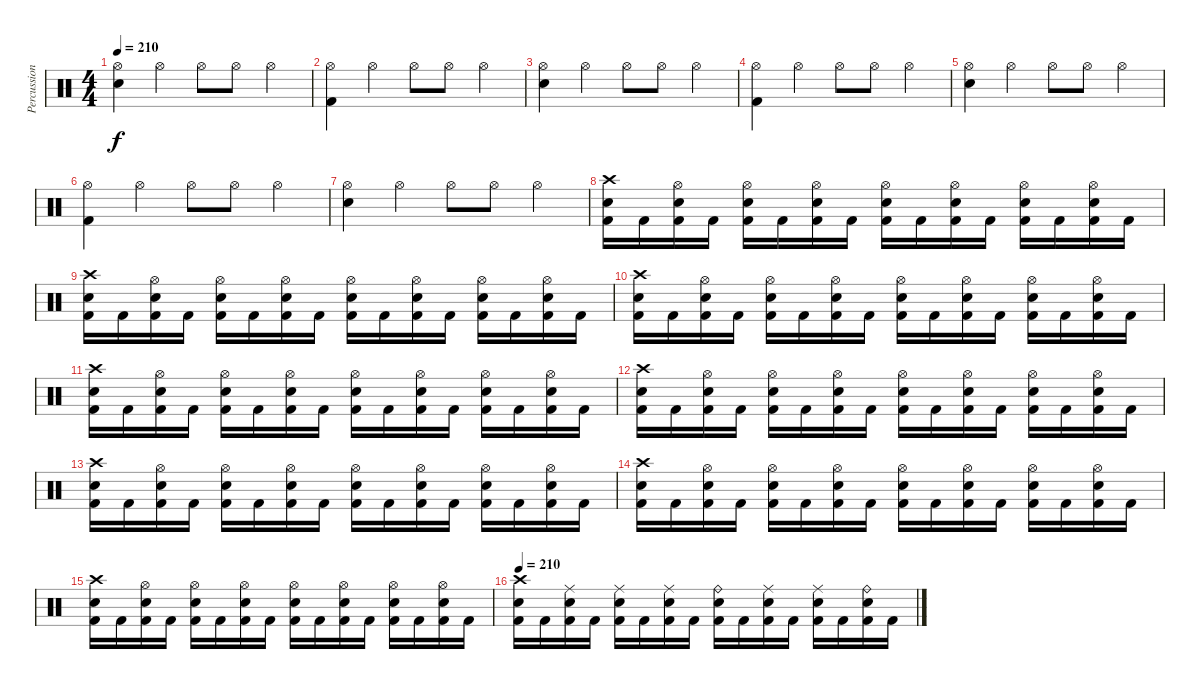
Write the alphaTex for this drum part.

\track ("Percussion" "Percussion") {instrument percussion}
\staff {score}
\articulation defaults
\ts (4 4)
\tempo 210
\clef neutral
\ks c
("Hi-Hat (open)" "Snare (hit) 2").4{dy f} "Hi-Hat (open)".4 "Hi-Hat (open)".8 "Hi-Hat (open)".8 "Hi-Hat (open)".4 |
("Hi-Hat (open)" "Kick (hit) 2").4 "Hi-Hat (open)".4 "Hi-Hat (open)".8 "Hi-Hat (open)".8 "Hi-Hat (open)".4 |
("Hi-Hat (open)" "Snare (hit) 2").4 "Hi-Hat (open)".4 "Hi-Hat (open)".8 "Hi-Hat (open)".8 "Hi-Hat (open)".4 |
("Hi-Hat (open)" "Kick (hit) 2").4 "Hi-Hat (open)".4 "Hi-Hat (open)".8 "Hi-Hat (open)".8 "Hi-Hat (open)".4 |
("Hi-Hat (open)" "Snare (hit) 2").4 "Hi-Hat (open)".4 "Hi-Hat (open)".8 "Hi-Hat (open)".8 "Hi-Hat (open)".4 |
("Hi-Hat (open)" "Kick (hit) 2").4 "Hi-Hat (open)".4 "Hi-Hat (open)".8 "Hi-Hat (open)".8 "Hi-Hat (open)".4 |
("Hi-Hat (open)" "Snare (hit) 2").4 "Hi-Hat (open)".4 "Hi-Hat (open)".8 "Hi-Hat (open)".8 "Hi-Hat (open)".4 |
("Crash high (hit)" "Snare (hit) 2" "Kick (hit) 2").16 "Kick (hit) 2".16 ("Hi-Hat (open)" "Snare (hit) 2" "Kick (hit) 2").16 "Kick (hit) 2".16 ("Hi-Hat (open)" "Snare (hit) 2" "Kick (hit) 2").16 "Kick (hit) 2".16 ("Hi-Hat (open)" "Snare (hit) 2" "Kick (hit) 2").16 "Kick (hit) 2".16 ("Hi-Hat (open)" "Snare (hit) 2" "Kick (hit) 2").16 "Kick (hit) 2".16 ("Hi-Hat (open)" "Snare (hit) 2" "Kick (hit) 2").16 "Kick (hit) 2".16 ("Hi-Hat (open)" "Snare (hit) 2" "Kick (hit) 2").16 "Kick (hit) 2".16 ("Hi-Hat (open)" "Snare (hit) 2" "Kick (hit) 2").16 "Kick (hit) 2".16 |
("Crash high (hit)" "Snare (hit) 2" "Kick (hit) 2").16 "Kick (hit) 2".16 ("Hi-Hat (open)" "Snare (hit) 2" "Kick (hit) 2").16 "Kick (hit) 2".16 ("Hi-Hat (open)" "Snare (hit) 2" "Kick (hit) 2").16 "Kick (hit) 2".16 ("Hi-Hat (open)" "Snare (hit) 2" "Kick (hit) 2").16 "Kick (hit) 2".16 ("Hi-Hat (open)" "Snare (hit) 2" "Kick (hit) 2").16 "Kick (hit) 2".16 ("Hi-Hat (open)" "Snare (hit) 2" "Kick (hit) 2").16 "Kick (hit) 2".16 ("Hi-Hat (open)" "Snare (hit) 2" "Kick (hit) 2").16 "Kick (hit) 2".16 ("Hi-Hat (open)" "Snare (hit) 2" "Kick (hit) 2").16 "Kick (hit) 2".16 |
("Crash high (hit)" "Snare (hit) 2" "Kick (hit) 2").16 "Kick (hit) 2".16 ("Hi-Hat (open)" "Snare (hit) 2" "Kick (hit) 2").16 "Kick (hit) 2".16 ("Hi-Hat (open)" "Snare (hit) 2" "Kick (hit) 2").16 "Kick (hit) 2".16 ("Hi-Hat (open)" "Snare (hit) 2" "Kick (hit) 2").16 "Kick (hit) 2".16 ("Hi-Hat (open)" "Snare (hit) 2" "Kick (hit) 2").16 "Kick (hit) 2".16 ("Hi-Hat (open)" "Snare (hit) 2" "Kick (hit) 2").16 "Kick (hit) 2".16 ("Hi-Hat (open)" "Snare (hit) 2" "Kick (hit) 2").16 "Kick (hit) 2".16 ("Hi-Hat (open)" "Snare (hit) 2" "Kick (hit) 2").16 "Kick (hit) 2".16 |
("Crash high (hit)" "Snare (hit) 2" "Kick (hit) 2").16 "Kick (hit) 2".16 ("Hi-Hat (open)" "Snare (hit) 2" "Kick (hit) 2").16 "Kick (hit) 2".16 ("Hi-Hat (open)" "Snare (hit) 2" "Kick (hit) 2").16 "Kick (hit) 2".16 ("Hi-Hat (open)" "Snare (hit) 2" "Kick (hit) 2").16 "Kick (hit) 2".16 ("Hi-Hat (open)" "Snare (hit) 2" "Kick (hit) 2").16 "Kick (hit) 2".16 ("Hi-Hat (open)" "Snare (hit) 2" "Kick (hit) 2").16 "Kick (hit) 2".16 ("Hi-Hat (open)" "Snare (hit) 2" "Kick (hit) 2").16 "Kick (hit) 2".16 ("Hi-Hat (open)" "Snare (hit) 2" "Kick (hit) 2").16 "Kick (hit) 2".16 |
("Crash high (hit)" "Snare (hit) 2" "Kick (hit) 2").16 "Kick (hit) 2".16 ("Hi-Hat (open)" "Snare (hit) 2" "Kick (hit) 2").16 "Kick (hit) 2".16 ("Hi-Hat (open)" "Snare (hit) 2" "Kick (hit) 2").16 "Kick (hit) 2".16 ("Hi-Hat (open)" "Snare (hit) 2" "Kick (hit) 2").16 "Kick (hit) 2".16 ("Hi-Hat (open)" "Snare (hit) 2" "Kick (hit) 2").16 "Kick (hit) 2".16 ("Hi-Hat (open)" "Snare (hit) 2" "Kick (hit) 2").16 "Kick (hit) 2".16 ("Hi-Hat (open)" "Snare (hit) 2" "Kick (hit) 2").16 "Kick (hit) 2".16 ("Hi-Hat (open)" "Snare (hit) 2" "Kick (hit) 2").16 "Kick (hit) 2".16 |
("Crash high (hit)" "Snare (hit) 2" "Kick (hit) 2").16 "Kick (hit) 2".16 ("Hi-Hat (open)" "Snare (hit) 2" "Kick (hit) 2").16 "Kick (hit) 2".16 ("Hi-Hat (open)" "Snare (hit) 2" "Kick (hit) 2").16 "Kick (hit) 2".16 ("Hi-Hat (open)" "Snare (hit) 2" "Kick (hit) 2").16 "Kick (hit) 2".16 ("Hi-Hat (open)" "Snare (hit) 2" "Kick (hit) 2").16 "Kick (hit) 2".16 ("Hi-Hat (open)" "Snare (hit) 2" "Kick (hit) 2").16 "Kick (hit) 2".16 ("Hi-Hat (open)" "Snare (hit) 2" "Kick (hit) 2").16 "Kick (hit) 2".16 ("Hi-Hat (open)" "Snare (hit) 2" "Kick (hit) 2").16 "Kick (hit) 2".16 |
("Crash high (hit)" "Snare (hit) 2" "Kick (hit) 2").16 "Kick (hit) 2".16 ("Hi-Hat (open)" "Snare (hit) 2" "Kick (hit) 2").16 "Kick (hit) 2".16 ("Hi-Hat (open)" "Snare (hit) 2" "Kick (hit) 2").16 "Kick (hit) 2".16 ("Hi-Hat (open)" "Snare (hit) 2" "Kick (hit) 2").16 "Kick (hit) 2".16 ("Hi-Hat (open)" "Snare (hit) 2" "Kick (hit) 2").16 "Kick (hit) 2".16 ("Hi-Hat (open)" "Snare (hit) 2" "Kick (hit) 2").16 "Kick (hit) 2".16 ("Hi-Hat (open)" "Snare (hit) 2" "Kick (hit) 2").16 "Kick (hit) 2".16 ("Hi-Hat (open)" "Snare (hit) 2" "Kick (hit) 2").16 "Kick (hit) 2".16 |
("Crash high (hit)" "Snare (hit) 2" "Kick (hit) 2").16 "Kick (hit) 2".16 ("Hi-Hat (open)" "Snare (hit) 2" "Kick (hit) 2").16 "Kick (hit) 2".16 ("Hi-Hat (open)" "Snare (hit) 2" "Kick (hit) 2").16 "Kick (hit) 2".16 ("Hi-Hat (open)" "Snare (hit) 2" "Kick (hit) 2").16 "Kick (hit) 2".16 ("Hi-Hat (open)" "Snare (hit) 2" "Kick (hit) 2").16 "Kick (hit) 2".16 ("Hi-Hat (open)" "Snare (hit) 2" "Kick (hit) 2").16 "Kick (hit) 2".16 ("Hi-Hat (open)" "Snare (hit) 2" "Kick (hit) 2").16 "Kick (hit) 2".16 ("Hi-Hat (open)" "Snare (hit) 2" "Kick (hit) 2").16 "Kick (hit) 2".16 |
\tempo 210
("Crash high (hit)" "Snare (hit) 2" "Kick (hit) 2").16 "Kick (hit) 2".16 ("Ride (middle)" "Snare (hit) 2" "Kick (hit) 2").16 "Kick (hit) 2".16 ("Ride (middle)" "Snare (hit) 2" "Kick (hit) 2").16 "Kick (hit) 2".16 ("Ride (middle)" "Snare (hit) 2" "Kick (hit) 2").16 "Kick (hit) 2".16 ("Ride (bell)" "Snare (hit) 2" "Kick (hit) 2").16 "Kick (hit) 2".16 ("Ride (middle)" "Snare (hit) 2" "Kick (hit) 2").16 "Kick (hit) 2".16 ("Ride (middle)" "Snare (hit) 2" "Kick (hit) 2").16 "Kick (hit) 2".16 ("Ride (bell)" "Snare (hit) 2" "Kick (hit) 2").16 "Kick (hit) 2".16
